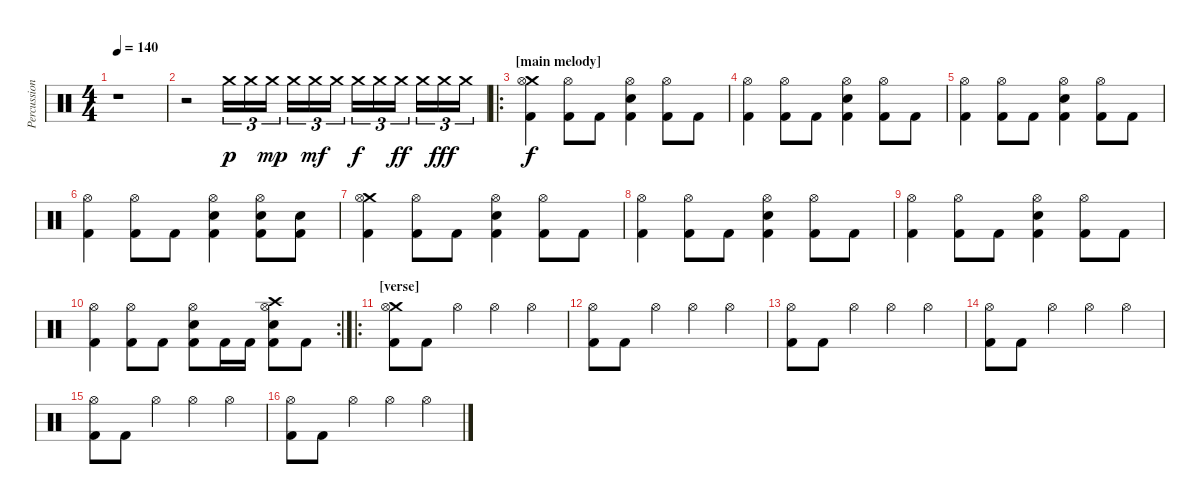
\track ("Percussion" "Percussion") {instrument percussion}
\staff {score}
\articulation defaults
\ts (4 4)
\tempo 140
\clef neutral
\ks c
r.1{dy p} |
r.2 "Crash medium (hit)".16{tu (3 2)} "Crash medium (hit)".16{tu (3 2)} "Crash medium (hit)".16{tu (3 2) dy mp} "Crash medium (hit)".16{tu (3 2)} "Crash medium (hit)".16{tu (3 2) dy mf} "Crash medium (hit)".16{tu (3 2)} "Crash medium (hit)".16{tu (3 2) dy f} "Crash medium (hit)".16{tu (3 2)} "Crash medium (hit)".16{tu (3 2) dy ff} "Crash medium (hit)".16{tu (3 2)} "Crash medium (hit)".16{tu (3 2) dy fff} "Crash medium (hit)".16{tu (3 2)} |
\ro
\section ("" "[main melody]")
("Crash medium (hit)" "Hi-Hat (open)" "Kick (hit) 2").4{dy f} ("Hi-Hat (open)" "Kick (hit) 2").8 "Kick (hit) 2".8 ("Hi-Hat (open)" "Electric Snare (hit)" "Kick (hit) 2").4 ("Hi-Hat (open)" "Kick (hit) 2").8 "Kick (hit) 2".8 |
("Hi-Hat (open)" "Kick (hit) 2").4 ("Hi-Hat (open)" "Kick (hit) 2").8 "Kick (hit) 2".8 ("Hi-Hat (open)" "Electric Snare (hit)" "Kick (hit) 2").4 ("Hi-Hat (open)" "Kick (hit) 2").8 "Kick (hit) 2".8 |
("Hi-Hat (open)" "Kick (hit) 2").4 ("Hi-Hat (open)" "Kick (hit) 2").8 "Kick (hit) 2".8 ("Hi-Hat (open)" "Electric Snare (hit)" "Kick (hit) 2").4 ("Hi-Hat (open)" "Kick (hit) 2").8 "Kick (hit) 2".8 |
("Hi-Hat (open)" "Kick (hit) 2").4 ("Hi-Hat (open)" "Kick (hit) 2").8 "Kick (hit) 2".8 ("Hi-Hat (open)" "Electric Snare (hit)" "Kick (hit) 2").4 ("Hi-Hat (open)" "Electric Snare (hit)" "Kick (hit) 2").8 ("Electric Snare (hit)" "Kick (hit) 2").8 |
("Crash medium (hit)" "Hi-Hat (open)" "Kick (hit) 2").4 ("Hi-Hat (open)" "Kick (hit) 2").8 "Kick (hit) 2".8 ("Hi-Hat (open)" "Electric Snare (hit)" "Kick (hit) 2").4 ("Hi-Hat (open)" "Kick (hit) 2").8 "Kick (hit) 2".8 |
("Hi-Hat (open)" "Kick (hit) 2").4 ("Hi-Hat (open)" "Kick (hit) 2").8 "Kick (hit) 2".8 ("Hi-Hat (open)" "Electric Snare (hit)" "Kick (hit) 2").4 ("Hi-Hat (open)" "Kick (hit) 2").8 "Kick (hit) 2".8 |
("Hi-Hat (open)" "Kick (hit) 2").4 ("Hi-Hat (open)" "Kick (hit) 2").8 "Kick (hit) 2".8 ("Hi-Hat (open)" "Electric Snare (hit)" "Kick (hit) 2").4 ("Hi-Hat (open)" "Kick (hit) 2").8 "Kick (hit) 2".8 |
\rc 2
("Hi-Hat (open)" "Kick (hit) 2").4 ("Hi-Hat (open)" "Kick (hit) 2").8 "Kick (hit) 2".8 ("Hi-Hat (open)" "Electric Snare (hit)" "Kick (hit) 2").8 "Kick (hit) 2".16 "Kick (hit) 2".16 ("Crash high (hit)" "Hi-Hat (open)" "Electric Snare (hit)" "Kick (hit) 2").8 "Kick (hit) 2".8 |
\ro
\section ("" "[verse]")
("Crash medium (hit)" "Hi-Hat (open)" "Kick (hit) 2").8 "Kick (hit) 2".8 "Hi-Hat (open)".4 "Hi-Hat (open)".4 "Hi-Hat (open)".4 |
("Hi-Hat (open)" "Kick (hit) 2").8 "Kick (hit) 2".8 "Hi-Hat (open)".4 "Hi-Hat (open)".4 "Hi-Hat (open)".4 |
("Hi-Hat (open)" "Kick (hit) 2").8 "Kick (hit) 2".8 "Hi-Hat (open)".4 "Hi-Hat (open)".4 "Hi-Hat (open)".4 |
("Hi-Hat (open)" "Kick (hit) 2").8 "Kick (hit) 2".8 "Hi-Hat (open)".4 "Hi-Hat (open)".4 "Hi-Hat (open)".4 |
("Hi-Hat (open)" "Kick (hit) 2").8 "Kick (hit) 2".8 "Hi-Hat (open)".4 "Hi-Hat (open)".4 "Hi-Hat (open)".4 |
("Hi-Hat (open)" "Kick (hit) 2").8 "Kick (hit) 2".8 "Hi-Hat (open)".4 "Hi-Hat (open)".4 "Hi-Hat (open)".4
